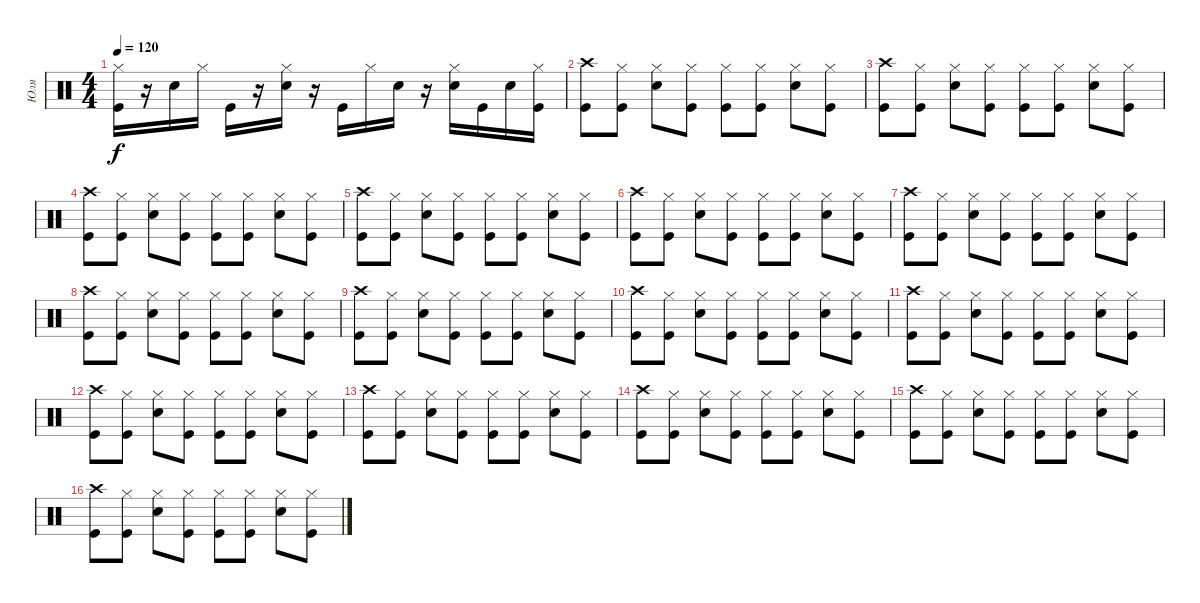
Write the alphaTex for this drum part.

\track ("Юля" "Юля") {instrument percussion}
\staff {score}
\articulation defaults
\ts (4 4)
\tempo 120
\clef neutral
\ks c
("Kick (hit)" "Hi-Hat (closed)").16{dy f} r.16 "Snare (hit) 2".16 "Hi-Hat (closed)".16 "Kick (hit)".16 r.16 ("Snare (hit) 2" "Hi-Hat (closed)").16 r.16 "Kick (hit)".16 "Hi-Hat (closed)".16 "Snare (hit) 2".16 r.16 ("Snare (hit) 2" "Hi-Hat (closed)").16 "Kick (hit)".16 "Snare (hit) 2".16 ("Kick (hit)" "Hi-Hat (closed)").16 |
("Crash high (hit)" "Kick (hit)").8 ("Hi-Hat (closed)" "Kick (hit)").8 ("Hi-Hat (closed)" "Snare (hit) 2").8 ("Hi-Hat (closed)" "Kick (hit)").8 ("Hi-Hat (closed)" "Kick (hit)").8 ("Hi-Hat (closed)" "Kick (hit)").8 ("Hi-Hat (closed)" "Snare (hit) 2").8 ("Hi-Hat (closed)" "Kick (hit)").8 |
("Crash high (hit)" "Kick (hit)").8 ("Hi-Hat (closed)" "Kick (hit)").8 ("Hi-Hat (closed)" "Snare (hit) 2").8 ("Hi-Hat (closed)" "Kick (hit)").8 ("Hi-Hat (closed)" "Kick (hit)").8 ("Hi-Hat (closed)" "Kick (hit)").8 ("Hi-Hat (closed)" "Snare (hit) 2").8 ("Hi-Hat (closed)" "Kick (hit)").8 |
("Crash high (hit)" "Kick (hit)").8 ("Hi-Hat (closed)" "Kick (hit)").8 ("Hi-Hat (closed)" "Snare (hit) 2").8 ("Hi-Hat (closed)" "Kick (hit)").8 ("Hi-Hat (closed)" "Kick (hit)").8 ("Hi-Hat (closed)" "Kick (hit)").8 ("Hi-Hat (closed)" "Snare (hit) 2").8 ("Hi-Hat (closed)" "Kick (hit)").8 |
("Crash high (hit)" "Kick (hit)").8 ("Hi-Hat (closed)" "Kick (hit)").8 ("Hi-Hat (closed)" "Snare (hit) 2").8 ("Hi-Hat (closed)" "Kick (hit)").8 ("Hi-Hat (closed)" "Kick (hit)").8 ("Hi-Hat (closed)" "Kick (hit)").8 ("Hi-Hat (closed)" "Snare (hit) 2").8 ("Hi-Hat (closed)" "Kick (hit)").8 |
("Crash high (hit)" "Kick (hit)").8 ("Hi-Hat (closed)" "Kick (hit)").8 ("Hi-Hat (closed)" "Snare (hit) 2").8 ("Hi-Hat (closed)" "Kick (hit)").8 ("Hi-Hat (closed)" "Kick (hit)").8 ("Hi-Hat (closed)" "Kick (hit)").8 ("Hi-Hat (closed)" "Snare (hit) 2").8 ("Hi-Hat (closed)" "Kick (hit)").8 |
("Crash high (hit)" "Kick (hit)").8 ("Hi-Hat (closed)" "Kick (hit)").8 ("Hi-Hat (closed)" "Snare (hit) 2").8 ("Hi-Hat (closed)" "Kick (hit)").8 ("Hi-Hat (closed)" "Kick (hit)").8 ("Hi-Hat (closed)" "Kick (hit)").8 ("Hi-Hat (closed)" "Snare (hit) 2").8 ("Hi-Hat (closed)" "Kick (hit)").8 |
("Crash high (hit)" "Kick (hit)").8 ("Hi-Hat (closed)" "Kick (hit)").8 ("Hi-Hat (closed)" "Snare (hit) 2").8 ("Hi-Hat (closed)" "Kick (hit)").8 ("Hi-Hat (closed)" "Kick (hit)").8 ("Hi-Hat (closed)" "Kick (hit)").8 ("Hi-Hat (closed)" "Snare (hit) 2").8 ("Hi-Hat (closed)" "Kick (hit)").8 |
("Crash high (hit)" "Kick (hit)").8 ("Hi-Hat (closed)" "Kick (hit)").8 ("Hi-Hat (closed)" "Snare (hit) 2").8 ("Hi-Hat (closed)" "Kick (hit)").8 ("Hi-Hat (closed)" "Kick (hit)").8 ("Hi-Hat (closed)" "Kick (hit)").8 ("Hi-Hat (closed)" "Snare (hit) 2").8 ("Hi-Hat (closed)" "Kick (hit)").8 |
("Crash high (hit)" "Kick (hit)").8 ("Hi-Hat (closed)" "Kick (hit)").8 ("Hi-Hat (closed)" "Snare (hit) 2").8 ("Hi-Hat (closed)" "Kick (hit)").8 ("Hi-Hat (closed)" "Kick (hit)").8 ("Hi-Hat (closed)" "Kick (hit)").8 ("Hi-Hat (closed)" "Snare (hit) 2").8 ("Hi-Hat (closed)" "Kick (hit)").8 |
("Crash high (hit)" "Kick (hit)").8 ("Hi-Hat (closed)" "Kick (hit)").8 ("Hi-Hat (closed)" "Snare (hit) 2").8 ("Hi-Hat (closed)" "Kick (hit)").8 ("Hi-Hat (closed)" "Kick (hit)").8 ("Hi-Hat (closed)" "Kick (hit)").8 ("Hi-Hat (closed)" "Snare (hit) 2").8 ("Hi-Hat (closed)" "Kick (hit)").8 |
("Crash high (hit)" "Kick (hit)").8 ("Hi-Hat (closed)" "Kick (hit)").8 ("Hi-Hat (closed)" "Snare (hit) 2").8 ("Hi-Hat (closed)" "Kick (hit)").8 ("Hi-Hat (closed)" "Kick (hit)").8 ("Hi-Hat (closed)" "Kick (hit)").8 ("Hi-Hat (closed)" "Snare (hit) 2").8 ("Hi-Hat (closed)" "Kick (hit)").8 |
("Crash high (hit)" "Kick (hit)").8 ("Hi-Hat (closed)" "Kick (hit)").8 ("Hi-Hat (closed)" "Snare (hit) 2").8 ("Hi-Hat (closed)" "Kick (hit)").8 ("Hi-Hat (closed)" "Kick (hit)").8 ("Hi-Hat (closed)" "Kick (hit)").8 ("Hi-Hat (closed)" "Snare (hit) 2").8 ("Hi-Hat (closed)" "Kick (hit)").8 |
("Crash high (hit)" "Kick (hit)").8 ("Hi-Hat (closed)" "Kick (hit)").8 ("Hi-Hat (closed)" "Snare (hit) 2").8 ("Hi-Hat (closed)" "Kick (hit)").8 ("Hi-Hat (closed)" "Kick (hit)").8 ("Hi-Hat (closed)" "Kick (hit)").8 ("Hi-Hat (closed)" "Snare (hit) 2").8 ("Hi-Hat (closed)" "Kick (hit)").8 |
("Crash high (hit)" "Kick (hit)").8 ("Hi-Hat (closed)" "Kick (hit)").8 ("Hi-Hat (closed)" "Snare (hit) 2").8 ("Hi-Hat (closed)" "Kick (hit)").8 ("Hi-Hat (closed)" "Kick (hit)").8 ("Hi-Hat (closed)" "Kick (hit)").8 ("Hi-Hat (closed)" "Snare (hit) 2").8 ("Hi-Hat (closed)" "Kick (hit)").8 |
("Crash high (hit)" "Kick (hit)").8 ("Hi-Hat (closed)" "Kick (hit)").8 ("Hi-Hat (closed)" "Snare (hit) 2").8 ("Hi-Hat (closed)" "Kick (hit)").8 ("Hi-Hat (closed)" "Kick (hit)").8 ("Hi-Hat (closed)" "Kick (hit)").8 ("Hi-Hat (closed)" "Snare (hit) 2").8 ("Hi-Hat (closed)" "Kick (hit)").8
